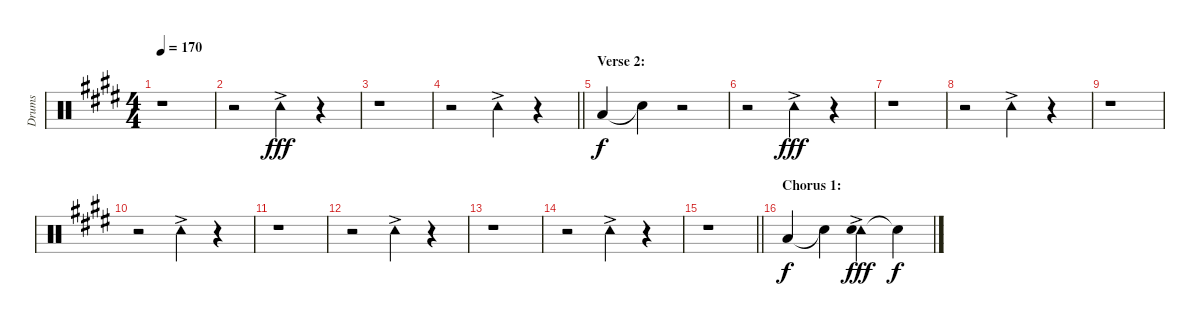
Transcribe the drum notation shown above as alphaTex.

\track ("Drums" "Drums") {instrument percussion}
\staff {score}
\articulation defaults
\ts (4 4)
\tempo 170
\clef neutral
\ks c#minor
r.1{dy fff} |
r.2 "Tambourine (hit)"{ac}.4 r.4 |
r.1 |
\barLineRight lightlight
r.2 "Tambourine (hit)"{ac}.4 r.4 |
\section ("" "Verse 2:")
"Low Floor Tom (hit)".4{dy f} "Snare (hit)"{t}.4 r.2 |
r.2 "Tambourine (hit)"{ac}.4{dy fff} r.4 |
r.1 |
r.2 "Tambourine (hit)"{ac}.4 r.4 |
r.1 |
r.2 "Tambourine (hit)"{ac}.4 r.4 |
r.1 |
r.2 "Tambourine (hit)"{ac}.4 r.4 |
r.1 |
r.2 "Tambourine (hit)"{ac}.4 r.4 |
\barLineRight lightlight
r.1 |
\section ("" "Chorus 1:")
"Low Floor Tom (hit)".4{dy f} "Snare (hit)"{t}.4 ("Tambourine (hit)"{ac} "Snare (hit)").4{dy fff} "Snare (hit)"{t}.4{dy f}
